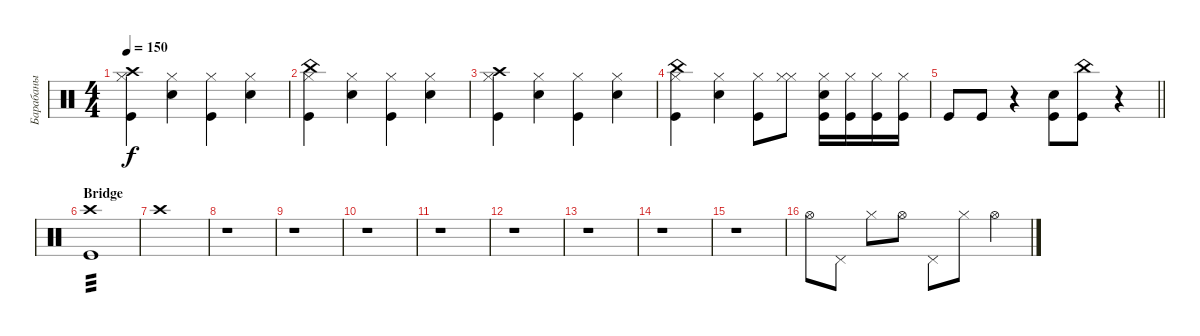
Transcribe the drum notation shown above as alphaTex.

\track ("Барабаны" "Барабаны") {instrument percussion}
\staff {score}
\articulation defaults
\ts (4 4)
\tempo 150
\clef neutral
\ks c
("Hi-Hat (closed)" "Kick (hit)" "Crash high (hit)").4{dy f} ("Hi-Hat (closed)" "Snare (hit) 2").4 ("Hi-Hat (closed)" "Kick (hit)").4 ("Hi-Hat (closed)" "Snare (hit) 2").4 |
("Hi-Hat (closed)" "Kick (hit)" "China (hit)").4 ("Hi-Hat (closed)" "Snare (hit) 2").4 ("Hi-Hat (closed)" "Kick (hit)").4 ("Hi-Hat (closed)" "Snare (hit) 2").4 |
("Hi-Hat (closed)" "Kick (hit)" "Crash high (hit)").4 ("Hi-Hat (closed)" "Snare (hit) 2").4 ("Hi-Hat (closed)" "Kick (hit)").4 ("Hi-Hat (closed)" "Snare (hit) 2").4 |
("Hi-Hat (closed)" "Kick (hit)" "China (hit)").4 ("Hi-Hat (closed)" "Snare (hit) 2").4 ("Hi-Hat (closed)" "Kick (hit)").8 ("Hi-Hat (closed)" "Hi-Hat (closed)").8 ("Snare (hit) 2" "Kick (hit)" "Hi-Hat (closed)").16 ("Kick (hit)" "Hi-Hat (closed)").16 ("Kick (hit)" "Hi-Hat (closed)").16 ("Kick (hit)" "Hi-Hat (closed)").16 |
\barLineRight lightlight "Kick (hit)".8 "Kick (hit)".8
r.4 ("Kick (hit)" "Snare (hit) 2").8 ("Kick (hit)" "China (hit)").8 r.4 |
\section ("" "Bridge")
("Crash high (hit)" "Kick (hit)").1{tp 3} |
"Crash high (hit)".1 |
r.1 |
r.1 |
r.1 |
r.1 |
r.1 |
r.1 |
r.1 |
r.1 |
"Hi-Hat (open)".8 "Pedal Hi-Hat (hit)".8 "Hi-Hat (closed)".8 "Hi-Hat (open)".8 "Pedal Hi-Hat (hit)".8 "Hi-Hat (closed)".8 "Hi-Hat (open)".4
